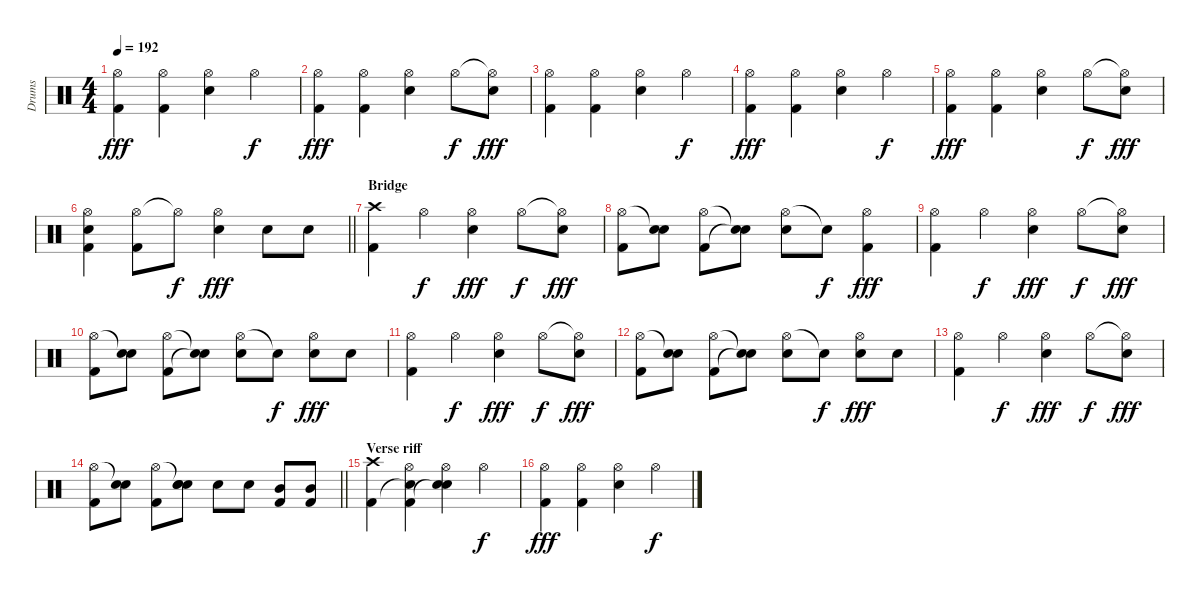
\track ("Drums" "Drums") {instrument percussion}
\staff {score}
\articulation defaults
\ts (4 4)
\tempo 192
\clef neutral
\ks c
("Hi-Hat (open)" "Kick (hit) 2").4{dy fff} ("Hi-Hat (open)" "Kick (hit) 2").4 ("Hi-Hat (open)" "Snare (hit) 2").4 "Hi-Hat (open)".4{dy f} |
("Hi-Hat (open)" "Kick (hit) 2").4{dy fff} ("Hi-Hat (open)" "Kick (hit) 2").4 ("Hi-Hat (open)" "Snare (hit) 2").4 "Hi-Hat (open)".8{dy f} ("Hi-Hat (open)"{t} "Snare (hit) 2").8{dy fff} |
("Hi-Hat (open)" "Kick (hit) 2").4 ("Hi-Hat (open)" "Kick (hit) 2").4 ("Hi-Hat (open)" "Snare (hit) 2").4 "Hi-Hat (open)".4{dy f} |
("Hi-Hat (open)" "Kick (hit) 2").4{dy fff} ("Hi-Hat (open)" "Kick (hit) 2").4 ("Hi-Hat (open)" "Snare (hit) 2").4 "Hi-Hat (open)".4{dy f} |
("Hi-Hat (open)" "Kick (hit) 2").4{dy fff} ("Hi-Hat (open)" "Kick (hit) 2").4 ("Hi-Hat (open)" "Snare (hit) 2").4 "Hi-Hat (open)".8{dy f} ("Hi-Hat (open)"{t} "Snare (hit) 2").8{dy fff} |
\barLineRight lightlight
("Hi-Hat (open)" "Snare (hit) 2" "Kick (hit) 2").4 ("Hi-Hat (open)" "Kick (hit) 2").8 "Hi-Hat (open)"{t}.8{dy f} ("Hi-Hat (open)" "Snare (hit) 2").4{dy fff} "Snare (hit) 2".8 "Snare (hit) 2".8 |
\section ("" "Bridge")
("Crash high (hit)" "Kick (hit) 2").4 "Hi-Hat (open)".4{dy f} ("Hi-Hat (open)" "Snare (hit) 2").4{dy fff} "Hi-Hat (open)".8{dy f} ("Hi-Hat (open)"{t} "Snare (hit) 2").8{dy fff} |
("Hi-Hat (open)" "Kick (hit) 2").8 ("Snare (hit)"{t} "Snare (hit) 2").8 ("Hi-Hat (open)" "Kick (hit) 2").8 ("Snare (hit)"{t} "Snare (hit)"{t}).8 ("Hi-Hat (open)" "Snare (hit) 2").8 "Snare (hit)"{t}.8{dy f} ("Hi-Hat (open)" "Kick (hit) 2").4{dy fff} |
("Hi-Hat (open)" "Kick (hit) 2").4 "Hi-Hat (open)".4{dy f} ("Hi-Hat (open)" "Snare (hit) 2").4{dy fff} "Hi-Hat (open)".8{dy f} ("Hi-Hat (open)"{t} "Snare (hit) 2").8{dy fff} |
("Hi-Hat (open)" "Kick (hit) 2").8 ("Snare (hit)"{t} "Snare (hit) 2").8 ("Hi-Hat (open)" "Kick (hit) 2").8 ("Snare (hit)"{t} "Snare (hit)"{t}).8 ("Hi-Hat (open)" "Snare (hit) 2").8 "Snare (hit)"{t}.8{dy f} ("Hi-Hat (open)" "Snare (hit) 2").8{dy fff} "Snare (hit) 2".8 |
("Hi-Hat (open)" "Kick (hit) 2").4 "Hi-Hat (open)".4{dy f} ("Hi-Hat (open)" "Snare (hit) 2").4{dy fff} "Hi-Hat (open)".8{dy f} ("Hi-Hat (open)"{t} "Snare (hit) 2").8{dy fff} |
("Hi-Hat (open)" "Kick (hit) 2").8 ("Snare (hit)"{t} "Snare (hit) 2").8 ("Hi-Hat (open)" "Kick (hit) 2").8 ("Snare (hit)"{t} "Snare (hit)"{t}).8 ("Hi-Hat (open)" "Snare (hit) 2").8 "Snare (hit)"{t}.8{dy f} ("Hi-Hat (open)" "Snare (hit) 2").8{dy fff} "Snare (hit) 2".8 |
("Hi-Hat (open)" "Kick (hit) 2").4 "Hi-Hat (open)".4{dy f} ("Hi-Hat (open)" "Snare (hit) 2").4{dy fff} "Hi-Hat (open)".8{dy f} ("Hi-Hat (open)"{t} "Snare (hit) 2").8{dy fff} |
\barLineRight lightlight
("Hi-Hat (open)" "Kick (hit) 2").8 ("Snare (hit)"{t} "Snare (hit) 2").8 ("Hi-Hat (open)" "Kick (hit) 2").8 ("Snare (hit)"{t} "Snare (hit) 2" "Snare (hit)").8 "Snare (hit) 2".8 "Snare (hit) 2".8 ("Mid Tom (hit)" "Kick (hit) 2").8 ("Mid Tom (hit)" "Kick (hit) 2").8 |
\section ("" "Verse riff")
("Crash high (hit)" "Kick (hit) 2").4 ("Hi-Hat (open)" "Snare (hit)"{t} "Kick (hit) 2").4 ("Hi-Hat (open)" "Snare (hit) 2" "Snare (hit)"{t}).4 "Hi-Hat (open)".4{dy f} |
("Hi-Hat (open)" "Kick (hit) 2").4{dy fff} ("Hi-Hat (open)" "Kick (hit) 2").4 ("Hi-Hat (open)" "Snare (hit) 2").4 "Hi-Hat (open)".4{dy f}
